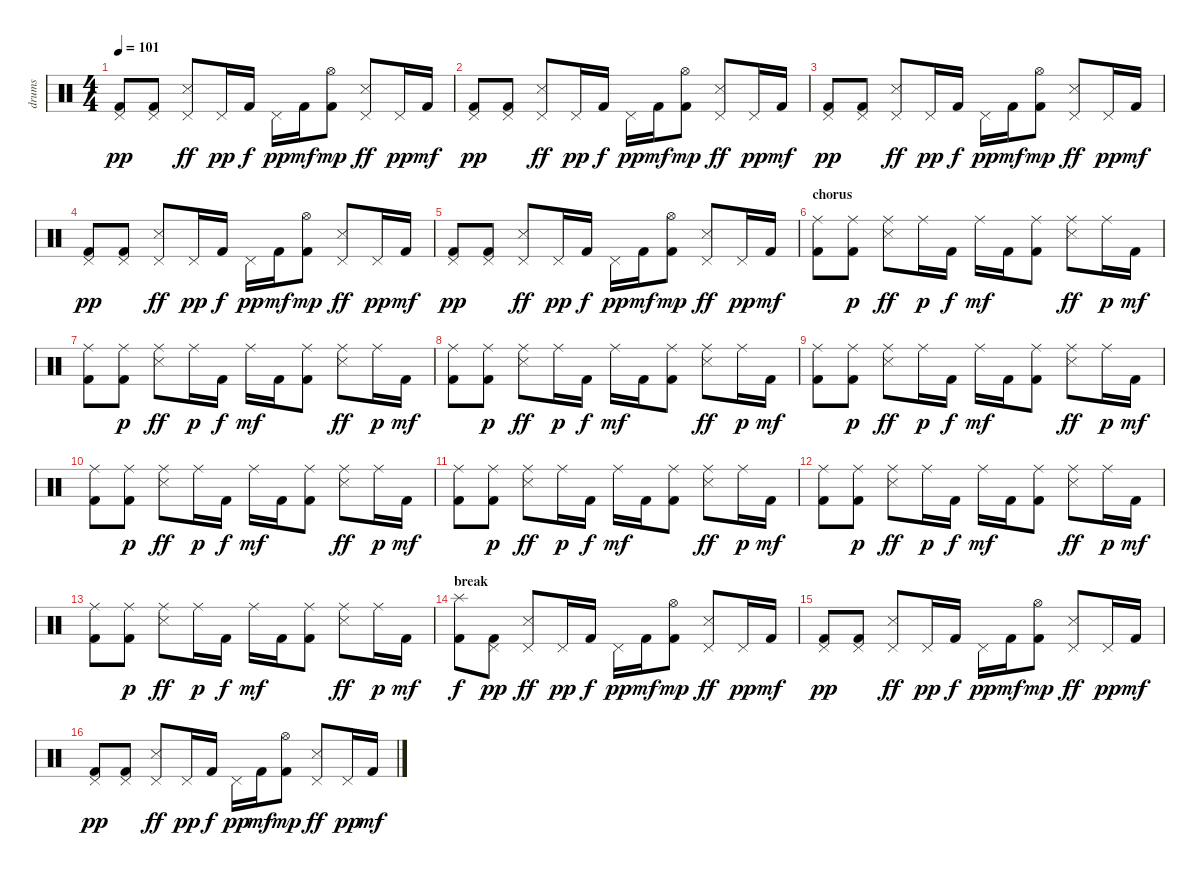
\track ("drums" "drums") {instrument percussion}
\staff {score}
\articulation defaults
\ts (4 4)
\tempo 101
\clef neutral
\ks c
("Pedal Hi-Hat (hit)" "Kick (hit) 2").8{dy pp} ("Pedal Hi-Hat (hit)" "Kick (hit) 2").8 ("Pedal Hi-Hat (hit)" "Snare (side stick) 3").8{dy ff} "Pedal Hi-Hat (hit)".16{dy pp} "Kick (hit) 2".16{dy f} "Pedal Hi-Hat (hit)".16{dy pp} "Kick (hit) 2".16{dy mf} ("Hi-Hat (open)" "Kick (hit) 2").8{dy mp} ("Pedal Hi-Hat (hit)" "Snare (side stick) 3").8{dy ff} "Pedal Hi-Hat (hit)".16{dy pp} "Kick (hit) 2".16{dy mf} |
("Pedal Hi-Hat (hit)" "Kick (hit) 2").8{dy pp} ("Pedal Hi-Hat (hit)" "Kick (hit) 2").8 ("Pedal Hi-Hat (hit)" "Snare (side stick) 3").8{dy ff} "Pedal Hi-Hat (hit)".16{dy pp} "Kick (hit) 2".16{dy f} "Pedal Hi-Hat (hit)".16{dy pp} "Kick (hit) 2".16{dy mf} ("Hi-Hat (open)" "Kick (hit) 2").8{dy mp} ("Pedal Hi-Hat (hit)" "Snare (side stick) 3").8{dy ff} "Pedal Hi-Hat (hit)".16{dy pp} "Kick (hit) 2".16{dy mf} |
("Pedal Hi-Hat (hit)" "Kick (hit) 2").8{dy pp} ("Pedal Hi-Hat (hit)" "Kick (hit) 2").8 ("Pedal Hi-Hat (hit)" "Snare (side stick) 3").8{dy ff} "Pedal Hi-Hat (hit)".16{dy pp} "Kick (hit) 2".16{dy f} "Pedal Hi-Hat (hit)".16{dy pp} "Kick (hit) 2".16{dy mf} ("Hi-Hat (open)" "Kick (hit) 2").8{dy mp} ("Pedal Hi-Hat (hit)" "Snare (side stick) 3").8{dy ff} "Pedal Hi-Hat (hit)".16{dy pp} "Kick (hit) 2".16{dy mf} |
("Pedal Hi-Hat (hit)" "Kick (hit) 2").8{dy pp} ("Pedal Hi-Hat (hit)" "Kick (hit) 2").8 ("Pedal Hi-Hat (hit)" "Snare (side stick) 3").8{dy ff} "Pedal Hi-Hat (hit)".16{dy pp} "Kick (hit) 2".16{dy f} "Pedal Hi-Hat (hit)".16{dy pp} "Kick (hit) 2".16{dy mf} ("Hi-Hat (open)" "Kick (hit) 2").8{dy mp} ("Pedal Hi-Hat (hit)" "Snare (side stick) 3").8{dy ff} "Pedal Hi-Hat (hit)".16{dy pp} "Kick (hit) 2".16{dy mf} |
("Pedal Hi-Hat (hit)" "Kick (hit) 2").8{dy pp} ("Pedal Hi-Hat (hit)" "Kick (hit) 2").8 ("Pedal Hi-Hat (hit)" "Snare (side stick) 3").8{dy ff} "Pedal Hi-Hat (hit)".16{dy pp} "Kick (hit) 2".16{dy f} "Pedal Hi-Hat (hit)".16{dy pp} "Kick (hit) 2".16{dy mf} ("Hi-Hat (open)" "Kick (hit) 2").8{dy mp} ("Pedal Hi-Hat (hit)" "Snare (side stick) 3").8{dy ff} "Pedal Hi-Hat (hit)".16{dy pp} "Kick (hit) 2".16{dy mf} |
\section ("" "chorus")
("Ride (middle)" "Kick (hit) 2").8 ("Ride (middle)" "Kick (hit) 2").8{dy p} ("Ride (middle)" "Snare (side stick) 3").8{dy ff} "Ride (middle)".16{dy p} "Kick (hit) 2".16{dy f} "Ride (middle)".16{dy mf} "Kick (hit) 2".16 ("Ride (middle)" "Kick (hit) 2").8 ("Ride (middle)" "Snare (side stick) 3").8{dy ff} "Ride (middle)".16{dy p} "Kick (hit) 2".16{dy mf} |
("Ride (middle)" "Kick (hit) 2").8 ("Ride (middle)" "Kick (hit) 2").8{dy p} ("Ride (middle)" "Snare (side stick) 3").8{dy ff} "Ride (middle)".16{dy p} "Kick (hit) 2".16{dy f} "Ride (middle)".16{dy mf} "Kick (hit) 2".16 ("Ride (middle)" "Kick (hit) 2").8 ("Ride (middle)" "Snare (side stick) 3").8{dy ff} "Ride (middle)".16{dy p} "Kick (hit) 2".16{dy mf} |
("Ride (middle)" "Kick (hit) 2").8 ("Ride (middle)" "Kick (hit) 2").8{dy p} ("Ride (middle)" "Snare (side stick) 3").8{dy ff} "Ride (middle)".16{dy p} "Kick (hit) 2".16{dy f} "Ride (middle)".16{dy mf} "Kick (hit) 2".16 ("Ride (middle)" "Kick (hit) 2").8 ("Ride (middle)" "Snare (side stick) 3").8{dy ff} "Ride (middle)".16{dy p} "Kick (hit) 2".16{dy mf} |
("Ride (middle)" "Kick (hit) 2").8 ("Ride (middle)" "Kick (hit) 2").8{dy p} ("Ride (middle)" "Snare (side stick) 3").8{dy ff} "Ride (middle)".16{dy p} "Kick (hit) 2".16{dy f} "Ride (middle)".16{dy mf} "Kick (hit) 2".16 ("Ride (middle)" "Kick (hit) 2").8 ("Ride (middle)" "Snare (side stick) 3").8{dy ff} "Ride (middle)".16{dy p} "Kick (hit) 2".16{dy mf} |
("Ride (middle)" "Kick (hit) 2").8 ("Ride (middle)" "Kick (hit) 2").8{dy p} ("Ride (middle)" "Snare (side stick) 3").8{dy ff} "Ride (middle)".16{dy p} "Kick (hit) 2".16{dy f} "Ride (middle)".16{dy mf} "Kick (hit) 2".16 ("Ride (middle)" "Kick (hit) 2").8 ("Ride (middle)" "Snare (side stick) 3").8{dy ff} "Ride (middle)".16{dy p} "Kick (hit) 2".16{dy mf} |
("Ride (middle)" "Kick (hit) 2").8 ("Ride (middle)" "Kick (hit) 2").8{dy p} ("Ride (middle)" "Snare (side stick) 3").8{dy ff} "Ride (middle)".16{dy p} "Kick (hit) 2".16{dy f} "Ride (middle)".16{dy mf} "Kick (hit) 2".16 ("Ride (middle)" "Kick (hit) 2").8 ("Ride (middle)" "Snare (side stick) 3").8{dy ff} "Ride (middle)".16{dy p} "Kick (hit) 2".16{dy mf} |
("Ride (middle)" "Kick (hit) 2").8 ("Ride (middle)" "Kick (hit) 2").8{dy p} ("Ride (middle)" "Snare (side stick) 3").8{dy ff} "Ride (middle)".16{dy p} "Kick (hit) 2".16{dy f} "Ride (middle)".16{dy mf} "Kick (hit) 2".16 ("Ride (middle)" "Kick (hit) 2").8 ("Ride (middle)" "Snare (side stick) 3").8{dy ff} "Ride (middle)".16{dy p} "Kick (hit) 2".16{dy mf} |
("Ride (middle)" "Kick (hit) 2").8 ("Ride (middle)" "Kick (hit) 2").8{dy p} ("Ride (middle)" "Snare (side stick) 3").8{dy ff} "Ride (middle)".16{dy p} "Kick (hit) 2".16{dy f} "Ride (middle)".16{dy mf} "Kick (hit) 2".16 ("Ride (middle)" "Kick (hit) 2").8 ("Ride (middle)" "Snare (side stick) 3").8{dy ff} "Ride (middle)".16{dy p} "Kick (hit) 2".16{dy mf} |
\section ("" "break")
("Splash (hit)" "Kick (hit) 2").8{dy f} ("Pedal Hi-Hat (hit)" "Kick (hit) 2").8{dy pp} ("Pedal Hi-Hat (hit)" "Snare (side stick) 3").8{dy ff} "Pedal Hi-Hat (hit)".16{dy pp} "Kick (hit) 2".16{dy f} "Pedal Hi-Hat (hit)".16{dy pp} "Kick (hit) 2".16{dy mf} ("Hi-Hat (open)" "Kick (hit) 2").8{dy mp} ("Pedal Hi-Hat (hit)" "Snare (side stick) 3").8{dy ff} "Pedal Hi-Hat (hit)".16{dy pp} "Kick (hit) 2".16{dy mf} |
("Pedal Hi-Hat (hit)" "Kick (hit) 2").8{dy pp} ("Pedal Hi-Hat (hit)" "Kick (hit) 2").8 ("Pedal Hi-Hat (hit)" "Snare (side stick) 3").8{dy ff} "Pedal Hi-Hat (hit)".16{dy pp} "Kick (hit) 2".16{dy f} "Pedal Hi-Hat (hit)".16{dy pp} "Kick (hit) 2".16{dy mf} ("Hi-Hat (open)" "Kick (hit) 2").8{dy mp} ("Pedal Hi-Hat (hit)" "Snare (side stick) 3").8{dy ff} "Pedal Hi-Hat (hit)".16{dy pp} "Kick (hit) 2".16{dy mf} |
("Pedal Hi-Hat (hit)" "Kick (hit) 2").8{dy pp} ("Pedal Hi-Hat (hit)" "Kick (hit) 2").8 ("Pedal Hi-Hat (hit)" "Snare (side stick) 3").8{dy ff} "Pedal Hi-Hat (hit)".16{dy pp} "Kick (hit) 2".16{dy f} "Pedal Hi-Hat (hit)".16{dy pp} "Kick (hit) 2".16{dy mf} ("Hi-Hat (open)" "Kick (hit) 2").8{dy mp} ("Pedal Hi-Hat (hit)" "Snare (side stick) 3").8{dy ff} "Pedal Hi-Hat (hit)".16{dy pp} "Kick (hit) 2".16{dy mf}
